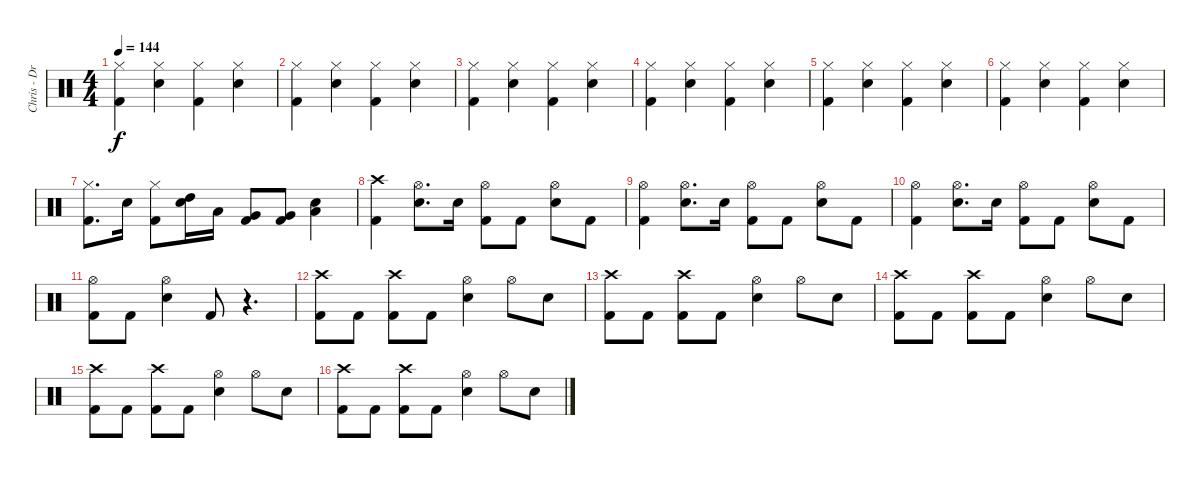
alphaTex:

\track ("Chris - Drums" "Chris - Dr") {instrument percussion}
\staff {score}
\articulation defaults
\ts (4 4)
\tempo 144
\clef neutral
\ks c
("Hi-Hat (closed)" "Kick (hit) 2").4{dy f} ("Hi-Hat (closed)" "Electric Snare (hit)").4 ("Hi-Hat (closed)" "Kick (hit) 2").4 ("Hi-Hat (closed)" "Electric Snare (hit)").4 |
("Hi-Hat (closed)" "Kick (hit) 2").4 ("Hi-Hat (closed)" "Electric Snare (hit)").4 ("Hi-Hat (closed)" "Kick (hit) 2").4 ("Hi-Hat (closed)" "Electric Snare (hit)").4 |
("Hi-Hat (closed)" "Kick (hit) 2").4 ("Hi-Hat (closed)" "Electric Snare (hit)").4 ("Hi-Hat (closed)" "Kick (hit) 2").4 ("Hi-Hat (closed)" "Electric Snare (hit)").4 |
("Hi-Hat (closed)" "Kick (hit) 2").4 ("Hi-Hat (closed)" "Electric Snare (hit)").4 ("Hi-Hat (closed)" "Kick (hit) 2").4 ("Hi-Hat (closed)" "Electric Snare (hit)").4 |
("Hi-Hat (closed)" "Kick (hit) 2").4 ("Hi-Hat (closed)" "Electric Snare (hit)").4 ("Hi-Hat (closed)" "Kick (hit) 2").4 ("Hi-Hat (closed)" "Electric Snare (hit)").4 |
("Hi-Hat (closed)" "Kick (hit) 2").4 ("Hi-Hat (closed)" "Electric Snare (hit)").4 ("Hi-Hat (closed)" "Kick (hit) 2").4 ("Hi-Hat (closed)" "Electric Snare (hit)").4 |
("Hi-Hat (closed)" "Kick (hit) 2").8{d} "Electric Snare (hit)".16 ("Hi-Hat (closed)" "Kick (hit) 2").8 ("High Tom (hit)" "Electric Snare (hit)").16 "Low Tom (hit)".16 ("Very Low Tom (hit)" "Kick (hit) 2").8 ("Very Low Tom (hit)" "Kick (hit) 2").8 ("Low Tom (hit)" "Electric Snare (hit)").4 |
("Crash high (hit)" "Kick (hit) 2").4 ("Hi-Hat (open)" "Electric Snare (hit)").8{d} "Electric Snare (hit)".16 ("Hi-Hat (open)" "Kick (hit) 2").8 "Kick (hit) 2".8 ("Hi-Hat (open)" "Electric Snare (hit)").8 "Kick (hit) 2".8 |
("Hi-Hat (open)" "Kick (hit) 2").4 ("Hi-Hat (open)" "Electric Snare (hit)").8{d} "Electric Snare (hit)".16 ("Hi-Hat (open)" "Kick (hit) 2").8 "Kick (hit) 2".8 ("Hi-Hat (open)" "Electric Snare (hit)").8 "Kick (hit) 2".8 |
("Hi-Hat (open)" "Kick (hit) 2").4 ("Hi-Hat (open)" "Electric Snare (hit)").8{d} "Electric Snare (hit)".16 ("Hi-Hat (open)" "Kick (hit) 2").8 "Kick (hit) 2".8 ("Hi-Hat (open)" "Electric Snare (hit)").8 "Kick (hit) 2".8 |
("Hi-Hat (open)" "Kick (hit) 2").8 "Kick (hit) 2".8 ("Hi-Hat (open)" "Electric Snare (hit)").4 "Kick (hit) 2".8 r.4{d} |
("Crash high (hit)" "Kick (hit) 2").8 "Kick (hit) 2".8 ("Crash high (hit)" "Kick (hit) 2").8 "Kick (hit) 2".8 ("Hi-Hat (open)" "Electric Snare (hit)").4 "Hi-Hat (open)".8 "Electric Snare (hit)".8 |
("Crash high (hit)" "Kick (hit) 2").8 "Kick (hit) 2".8 ("Crash high (hit)" "Kick (hit) 2").8 "Kick (hit) 2".8 ("Hi-Hat (open)" "Electric Snare (hit)").4 "Hi-Hat (open)".8 "Electric Snare (hit)".8 |
("Crash high (hit)" "Kick (hit) 2").8 "Kick (hit) 2".8 ("Crash high (hit)" "Kick (hit) 2").8 "Kick (hit) 2".8 ("Hi-Hat (open)" "Electric Snare (hit)").4 "Hi-Hat (open)".8 "Electric Snare (hit)".8 |
("Crash high (hit)" "Kick (hit) 2").8 "Kick (hit) 2".8 ("Crash high (hit)" "Kick (hit) 2").8 "Kick (hit) 2".8 ("Hi-Hat (open)" "Electric Snare (hit)").4 "Hi-Hat (open)".8 "Electric Snare (hit)".8 |
("Crash high (hit)" "Kick (hit) 2").8 "Kick (hit) 2".8 ("Crash high (hit)" "Kick (hit) 2").8 "Kick (hit) 2".8 ("Hi-Hat (open)" "Electric Snare (hit)").4 "Hi-Hat (open)".8 "Electric Snare (hit)".8
